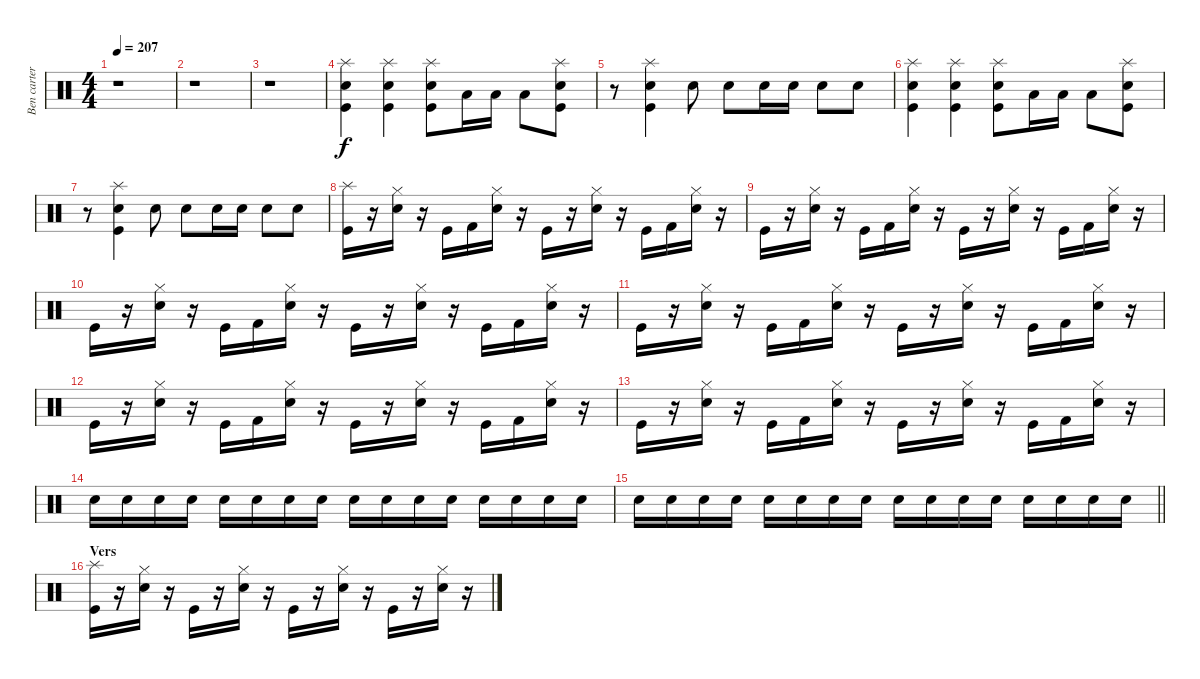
\track ("Ben carter" "Ben carter") {instrument percussion}
\staff {score}
\articulation defaults
\ts (4 4)
\tempo 207
\clef neutral
\ks c
r.1{dy f} |
r.1 |
r.1 |
("Splash (hit)" "Snare (hit) 2" "Kick (hit)").4 ("Splash (hit)" "Snare (hit) 2" "Kick (hit)").4 ("Splash (hit)" "Snare (hit) 2" "Kick (hit)").8 "Low Floor Tom (hit)".16 "Low Floor Tom (hit)".16 "Low Floor Tom (hit)".8 ("Snare (hit) 2" "Kick (hit)" "Splash (hit)").8 |
r.8 ("Snare (hit) 2" "Kick (hit)" "Splash (hit)").4 "Snare (hit) 2".8 "Snare (hit) 2".8 "Snare (hit) 2".16 "Snare (hit) 2".16 "Snare (hit) 2".8 "Snare (hit) 2".8 |
("Splash (hit)" "Snare (hit) 2" "Kick (hit)").4 ("Splash (hit)" "Snare (hit) 2" "Kick (hit)").4 ("Splash (hit)" "Snare (hit) 2" "Kick (hit)").8 "Low Floor Tom (hit)".16 "Low Floor Tom (hit)".16 "Low Floor Tom (hit)".8 ("Snare (hit) 2" "Kick (hit)" "Splash (hit)").8 |
r.8 ("Snare (hit) 2" "Kick (hit)" "Splash (hit)").4 "Snare (hit) 2".8 "Snare (hit) 2".8 "Snare (hit) 2".16 "Snare (hit) 2".16 "Snare (hit) 2".8 "Snare (hit) 2".8 |
("Splash (hit)" "Kick (hit)").16 r.16 ("Hi-Hat (closed)" "Electric Snare (hit)").16 r.16 "Kick (hit)".16 "Kick (hit) 2".16 ("Hi-Hat (closed)" "Electric Snare (hit)").16 r.16 "Kick (hit)".16 r.16 ("Hi-Hat (closed)" "Electric Snare (hit)").16 r.16 "Kick (hit)".16 "Kick (hit) 2".16 ("Hi-Hat (closed)" "Electric Snare (hit)").16 r.16 |
"Kick (hit)".16 r.16 ("Hi-Hat (closed)" "Electric Snare (hit)").16 r.16 "Kick (hit)".16 "Kick (hit) 2".16 ("Hi-Hat (closed)" "Electric Snare (hit)").16 r.16 "Kick (hit)".16 r.16 ("Hi-Hat (closed)" "Electric Snare (hit)").16 r.16 "Kick (hit)".16 "Kick (hit) 2".16 ("Hi-Hat (closed)" "Electric Snare (hit)").16 r.16 |
"Kick (hit)".16 r.16 ("Hi-Hat (closed)" "Electric Snare (hit)").16 r.16 "Kick (hit)".16 "Kick (hit) 2".16 ("Hi-Hat (closed)" "Electric Snare (hit)").16 r.16 "Kick (hit)".16 r.16 ("Hi-Hat (closed)" "Electric Snare (hit)").16 r.16 "Kick (hit)".16 "Kick (hit) 2".16 ("Hi-Hat (closed)" "Electric Snare (hit)").16 r.16 |
"Kick (hit)".16 r.16 ("Hi-Hat (closed)" "Electric Snare (hit)").16 r.16 "Kick (hit)".16 "Kick (hit) 2".16 ("Hi-Hat (closed)" "Electric Snare (hit)").16 r.16 "Kick (hit)".16 r.16 ("Hi-Hat (closed)" "Electric Snare (hit)").16 r.16 "Kick (hit)".16 "Kick (hit) 2".16 ("Hi-Hat (closed)" "Electric Snare (hit)").16 r.16 |
"Kick (hit)".16 r.16 ("Hi-Hat (closed)" "Electric Snare (hit)").16 r.16 "Kick (hit)".16 "Kick (hit) 2".16 ("Hi-Hat (closed)" "Electric Snare (hit)").16 r.16 "Kick (hit)".16 r.16 ("Hi-Hat (closed)" "Electric Snare (hit)").16 r.16 "Kick (hit)".16 "Kick (hit) 2".16 ("Hi-Hat (closed)" "Electric Snare (hit)").16 r.16 |
"Kick (hit)".16 r.16 ("Hi-Hat (closed)" "Electric Snare (hit)").16 r.16 "Kick (hit)".16 "Kick (hit) 2".16 ("Hi-Hat (closed)" "Electric Snare (hit)").16 r.16 "Kick (hit)".16 r.16 ("Hi-Hat (closed)" "Electric Snare (hit)").16 r.16 "Kick (hit)".16 "Kick (hit) 2".16 ("Hi-Hat (closed)" "Electric Snare (hit)").16 r.16 |
"Snare (hit) 2".16 "Snare (hit) 2".16 "Snare (hit) 2".16 "Snare (hit) 2".16 "Snare (hit) 2".16 "Snare (hit) 2".16 "Snare (hit) 2".16 "Snare (hit) 2".16 "Snare (hit) 2".16 "Snare (hit) 2".16 "Snare (hit) 2".16 "Snare (hit) 2".16 "Snare (hit) 2".16 "Snare (hit) 2".16 "Snare (hit) 2".16 "Snare (hit) 2".16 |
\barLineRight lightlight "Snare (hit) 2".16 "Snare (hit) 2".16 "Snare (hit) 2".16 "Snare (hit) 2".16 "Snare (hit) 2".16 "Snare (hit) 2".16 "Snare (hit) 2".16 "Snare (hit) 2".16 "Snare (hit) 2".16 "Snare (hit) 2".16 "Snare (hit) 2".16 "Snare (hit) 2".16 "Snare (hit) 2".16 "Snare (hit) 2".16 "Snare (hit) 2".16 "Snare (hit) 2".16
|
\section ("" "Vers")
("Splash (hit)" "Kick (hit)").16 r.16 ("Hi-Hat (closed)" "Electric Snare (hit)").16 r.16 "Kick (hit)".16 r.16 ("Hi-Hat (closed)" "Electric Snare (hit)").16 r.16 "Kick (hit)".16 r.16 ("Hi-Hat (closed)" "Electric Snare (hit)").16 r.16 "Kick (hit)".16 r.16 ("Hi-Hat (closed)" "Electric Snare (hit)").16 r.16
